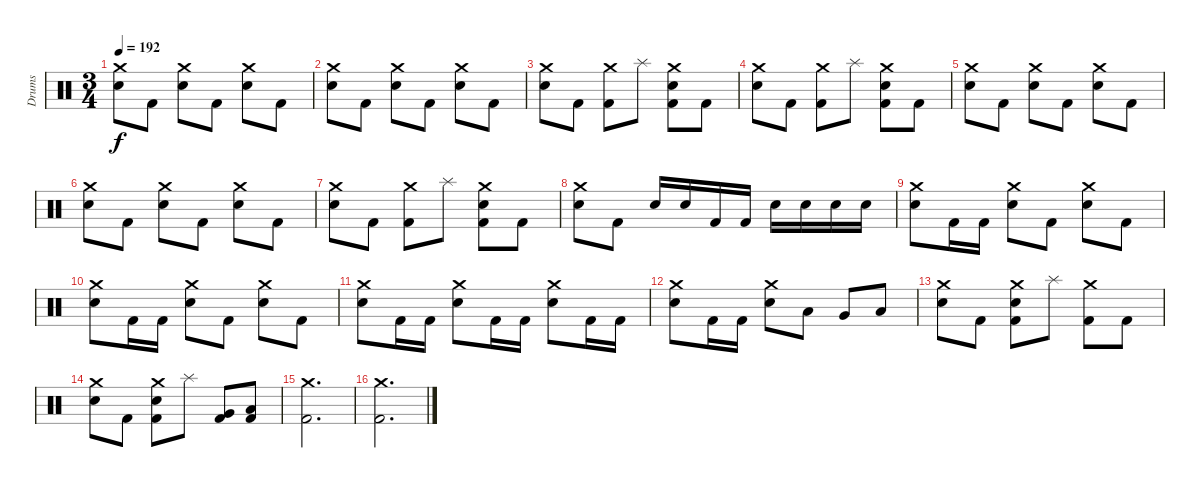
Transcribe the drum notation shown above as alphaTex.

\track ("Drums" "Drums") {instrument percussion}
\staff {score}
\articulation defaults
\ts (3 4)
\tempo 192
\clef neutral
\ks c
("Crash medium (hit)" "Electric Snare (hit)").8{dy f} "Kick (hit) 2".8 ("Crash medium (hit)" "Electric Snare (hit)").8 "Kick (hit) 2".8 ("Crash medium (hit)" "Electric Snare (hit)").8 "Kick (hit) 2".8 |
("Crash medium (hit)" "Electric Snare (hit)").8 "Kick (hit) 2".8 ("Crash medium (hit)" "Electric Snare (hit)").8 "Kick (hit) 2".8 ("Crash medium (hit)" "Electric Snare (hit)").8 "Kick (hit) 2".8 |
("Crash medium (hit)" "Electric Snare (hit)").8 "Kick (hit) 2".8 ("Crash medium (hit)" "Kick (hit) 2").8 "Splash (hit)".8 ("Crash medium (hit)" "Electric Snare (hit)" "Kick (hit) 2").8 "Kick (hit) 2".8 |
("Crash medium (hit)" "Electric Snare (hit)").8 "Kick (hit) 2".8 ("Crash medium (hit)" "Kick (hit) 2").8 "Splash (hit)".8 ("Crash medium (hit)" "Electric Snare (hit)" "Kick (hit) 2").8 "Kick (hit) 2".8 |
("Crash medium (hit)" "Electric Snare (hit)").8 "Kick (hit) 2".8 ("Crash medium (hit)" "Electric Snare (hit)").8 "Kick (hit) 2".8 ("Crash medium (hit)" "Electric Snare (hit)").8 "Kick (hit) 2".8 |
("Crash medium (hit)" "Electric Snare (hit)").8 "Kick (hit) 2".8 ("Crash medium (hit)" "Electric Snare (hit)").8 "Kick (hit) 2".8 ("Crash medium (hit)" "Electric Snare (hit)").8 "Kick (hit) 2".8 |
("Crash medium (hit)" "Electric Snare (hit)").8 "Kick (hit) 2".8 ("Crash medium (hit)" "Kick (hit) 2").8 "Splash (hit)".8 ("Crash medium (hit)" "Electric Snare (hit)" "Kick (hit) 2").8 "Kick (hit) 2".8 |
("Crash medium (hit)" "Electric Snare (hit)").8 "Kick (hit) 2".8 "Electric Snare (hit)".16 "Electric Snare (hit)".16 "Kick (hit) 2".16 "Kick (hit) 2".16 "Electric Snare (hit)".16 "Electric Snare (hit)".16 "Electric Snare (hit)".16 "Electric Snare (hit)".16 |
("Crash medium (hit)" "Electric Snare (hit)").8 "Kick (hit) 2".16 "Kick (hit) 2".16 ("Crash medium (hit)" "Electric Snare (hit)").8 "Kick (hit) 2".8 ("Crash medium (hit)" "Electric Snare (hit)").8 "Kick (hit) 2".8 |
("Crash medium (hit)" "Electric Snare (hit)").8 "Kick (hit) 2".16 "Kick (hit) 2".16 ("Crash medium (hit)" "Electric Snare (hit)").8 "Kick (hit) 2".8 ("Crash medium (hit)" "Electric Snare (hit)").8 "Kick (hit) 2".8 |
("Crash medium (hit)" "Electric Snare (hit)").8 "Kick (hit) 2".16 "Kick (hit) 2".16 ("Crash medium (hit)" "Electric Snare (hit)").8 "Kick (hit) 2".16 "Kick (hit) 2".16 ("Crash medium (hit)" "Electric Snare (hit)").8 "Kick (hit) 2".16 "Kick (hit) 2".16 |
("Crash medium (hit)" "Electric Snare (hit)").8 "Kick (hit) 2".16 "Kick (hit) 2".16 ("Crash medium (hit)" "Electric Snare (hit)").8 "Low Tom (hit)".8 "Very Low Tom (hit)".8 "Low Floor Tom (hit)".8 |
("Crash medium (hit)" "Electric Snare (hit)").8 "Kick (hit) 2".8 ("Crash medium (hit)" "Electric Snare (hit)" "Kick (hit) 2").8 "Splash (hit)".8 ("Crash medium (hit)" "Kick (hit) 2").8 "Kick (hit) 2".8 |
("Crash medium (hit)" "Electric Snare (hit)").8 "Kick (hit) 2".8 ("Crash medium (hit)" "Electric Snare (hit)" "Kick (hit) 2").8 "Splash (hit)".8 ("Very Low Tom (hit)" "Kick (hit) 2").8 ("Low Floor Tom (hit)" "Kick (hit) 2").8 |
("Crash medium (hit)" "Kick (hit) 2").2{d} |
("Crash medium (hit)" "Kick (hit) 2").2{d}
